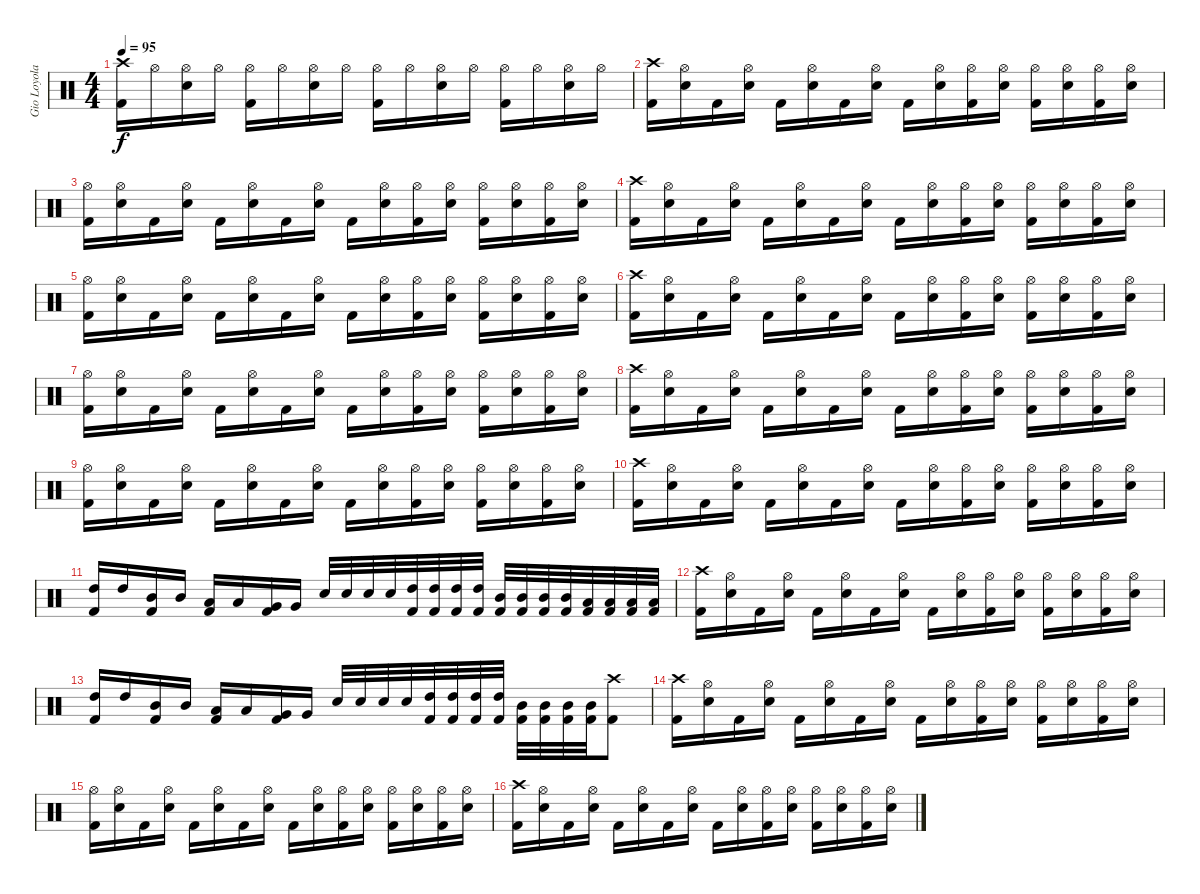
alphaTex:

\track ("Gio Loyola" "Gio Loyola") {instrument percussion}
\staff {score}
\articulation defaults
\ts (4 4)
\tempo 95
\clef neutral
\ks c
("Crash high (hit)" "Kick (hit) 2").16{dy f} "Hi-Hat (open)".16 ("Hi-Hat (open)" "Snare (hit) 2").16 "Hi-Hat (open)".16 ("Hi-Hat (open)" "Kick (hit) 2").16 "Hi-Hat (open)".16 ("Hi-Hat (open)" "Snare (hit) 2").16 "Hi-Hat (open)".16 ("Hi-Hat (open)" "Kick (hit) 2").16 "Hi-Hat (open)".16 ("Hi-Hat (open)" "Snare (hit) 2").16 "Hi-Hat (open)".16 ("Hi-Hat (open)" "Kick (hit) 2").16 "Hi-Hat (open)".16 ("Hi-Hat (open)" "Snare (hit) 2").16 "Hi-Hat (open)".16 |
("Crash high (hit)" "Kick (hit) 2").16 ("Hi-Hat (open)" "Snare (hit) 2").16 "Kick (hit) 2".16 ("Hi-Hat (open)" "Snare (hit) 2").16 "Kick (hit) 2".16 ("Hi-Hat (open)" "Snare (hit) 2").16 "Kick (hit) 2".16 ("Hi-Hat (open)" "Snare (hit) 2").16 "Kick (hit) 2".16 ("Hi-Hat (open)" "Snare (hit) 2").16 ("Hi-Hat (open)" "Kick (hit) 2").16 ("Hi-Hat (open)" "Snare (hit) 2").16 ("Hi-Hat (open)" "Kick (hit) 2").16 ("Hi-Hat (open)" "Snare (hit) 2").16 ("Hi-Hat (open)" "Kick (hit) 2").16 ("Hi-Hat (open)" "Snare (hit) 2").16 |
("Hi-Hat (open)" "Kick (hit) 2").16 ("Hi-Hat (open)" "Snare (hit) 2").16 "Kick (hit) 2".16 ("Hi-Hat (open)" "Snare (hit) 2").16 "Kick (hit) 2".16 ("Hi-Hat (open)" "Snare (hit) 2").16 "Kick (hit) 2".16 ("Hi-Hat (open)" "Snare (hit) 2").16 "Kick (hit) 2".16 ("Hi-Hat (open)" "Snare (hit) 2").16 ("Hi-Hat (open)" "Kick (hit) 2").16 ("Hi-Hat (open)" "Snare (hit) 2").16 ("Hi-Hat (open)" "Kick (hit) 2").16 ("Hi-Hat (open)" "Snare (hit) 2").16 ("Hi-Hat (open)" "Kick (hit) 2").16 ("Hi-Hat (open)" "Snare (hit) 2").16 |
("Crash high (hit)" "Kick (hit) 2").16 ("Hi-Hat (open)" "Snare (hit) 2").16 "Kick (hit) 2".16 ("Hi-Hat (open)" "Snare (hit) 2").16 "Kick (hit) 2".16 ("Hi-Hat (open)" "Snare (hit) 2").16 "Kick (hit) 2".16 ("Hi-Hat (open)" "Snare (hit) 2").16 "Kick (hit) 2".16 ("Hi-Hat (open)" "Snare (hit) 2").16 ("Hi-Hat (open)" "Kick (hit) 2").16 ("Hi-Hat (open)" "Snare (hit) 2").16 ("Hi-Hat (open)" "Kick (hit) 2").16 ("Hi-Hat (open)" "Snare (hit) 2").16 ("Hi-Hat (open)" "Kick (hit) 2").16 ("Hi-Hat (open)" "Snare (hit) 2").16 |
("Hi-Hat (open)" "Kick (hit) 2").16 ("Hi-Hat (open)" "Snare (hit) 2").16 "Kick (hit) 2".16 ("Hi-Hat (open)" "Snare (hit) 2").16 "Kick (hit) 2".16 ("Hi-Hat (open)" "Snare (hit) 2").16 "Kick (hit) 2".16 ("Hi-Hat (open)" "Snare (hit) 2").16 "Kick (hit) 2".16 ("Hi-Hat (open)" "Snare (hit) 2").16 ("Hi-Hat (open)" "Kick (hit) 2").16 ("Hi-Hat (open)" "Snare (hit) 2").16 ("Hi-Hat (open)" "Kick (hit) 2").16 ("Hi-Hat (open)" "Snare (hit) 2").16 ("Hi-Hat (open)" "Kick (hit) 2").16 ("Hi-Hat (open)" "Snare (hit) 2").16 |
("Crash high (hit)" "Kick (hit) 2").16 ("Hi-Hat (open)" "Snare (hit) 2").16 "Kick (hit) 2".16 ("Hi-Hat (open)" "Snare (hit) 2").16 "Kick (hit) 2".16 ("Hi-Hat (open)" "Snare (hit) 2").16 "Kick (hit) 2".16 ("Hi-Hat (open)" "Snare (hit) 2").16 "Kick (hit) 2".16 ("Hi-Hat (open)" "Snare (hit) 2").16 ("Hi-Hat (open)" "Kick (hit) 2").16 ("Hi-Hat (open)" "Snare (hit) 2").16 ("Hi-Hat (open)" "Kick (hit) 2").16 ("Hi-Hat (open)" "Snare (hit) 2").16 ("Hi-Hat (open)" "Kick (hit) 2").16 ("Hi-Hat (open)" "Snare (hit) 2").16 |
("Hi-Hat (open)" "Kick (hit) 2").16 ("Hi-Hat (open)" "Snare (hit) 2").16 "Kick (hit) 2".16 ("Hi-Hat (open)" "Snare (hit) 2").16 "Kick (hit) 2".16 ("Hi-Hat (open)" "Snare (hit) 2").16 "Kick (hit) 2".16 ("Hi-Hat (open)" "Snare (hit) 2").16 "Kick (hit) 2".16 ("Hi-Hat (open)" "Snare (hit) 2").16 ("Hi-Hat (open)" "Kick (hit) 2").16 ("Hi-Hat (open)" "Snare (hit) 2").16 ("Hi-Hat (open)" "Kick (hit) 2").16 ("Hi-Hat (open)" "Snare (hit) 2").16 ("Hi-Hat (open)" "Kick (hit) 2").16 ("Hi-Hat (open)" "Snare (hit) 2").16 |
("Crash high (hit)" "Kick (hit) 2").16 ("Hi-Hat (open)" "Snare (hit) 2").16 "Kick (hit) 2".16 ("Hi-Hat (open)" "Snare (hit) 2").16 "Kick (hit) 2".16 ("Hi-Hat (open)" "Snare (hit) 2").16 "Kick (hit) 2".16 ("Hi-Hat (open)" "Snare (hit) 2").16 "Kick (hit) 2".16 ("Hi-Hat (open)" "Snare (hit) 2").16 ("Hi-Hat (open)" "Kick (hit) 2").16 ("Hi-Hat (open)" "Snare (hit) 2").16 ("Hi-Hat (open)" "Kick (hit) 2").16 ("Hi-Hat (open)" "Snare (hit) 2").16 ("Hi-Hat (open)" "Kick (hit) 2").16 ("Hi-Hat (open)" "Snare (hit) 2").16 |
("Hi-Hat (open)" "Kick (hit) 2").16 ("Hi-Hat (open)" "Snare (hit) 2").16 "Kick (hit) 2".16 ("Hi-Hat (open)" "Snare (hit) 2").16 "Kick (hit) 2".16 ("Hi-Hat (open)" "Snare (hit) 2").16 "Kick (hit) 2".16 ("Hi-Hat (open)" "Snare (hit) 2").16 "Kick (hit) 2".16 ("Hi-Hat (open)" "Snare (hit) 2").16 ("Hi-Hat (open)" "Kick (hit) 2").16 ("Hi-Hat (open)" "Snare (hit) 2").16 ("Hi-Hat (open)" "Kick (hit) 2").16 ("Hi-Hat (open)" "Snare (hit) 2").16 ("Hi-Hat (open)" "Kick (hit) 2").16 ("Hi-Hat (open)" "Snare (hit) 2").16 |
("Crash high (hit)" "Kick (hit) 2").16 ("Hi-Hat (open)" "Snare (hit) 2").16 "Kick (hit) 2".16 ("Hi-Hat (open)" "Snare (hit) 2").16 "Kick (hit) 2".16 ("Hi-Hat (open)" "Snare (hit) 2").16 "Kick (hit) 2".16 ("Hi-Hat (open)" "Snare (hit) 2").16 "Kick (hit) 2".16 ("Hi-Hat (open)" "Snare (hit) 2").16 ("Hi-Hat (open)" "Kick (hit) 2").16 ("Hi-Hat (open)" "Snare (hit) 2").16 ("Hi-Hat (open)" "Kick (hit) 2").16 ("Hi-Hat (open)" "Snare (hit) 2").16 ("Hi-Hat (open)" "Kick (hit) 2").16 ("Hi-Hat (open)" "Snare (hit) 2").16 |
("High Tom (hit)" "Kick (hit) 2").16 "High Tom (hit)".16 ("Mid Tom (hit)" "Kick (hit) 2").16 "Mid Tom (hit)".16 ("Low Tom (hit)" "Kick (hit) 2").16 "Low Tom (hit)".16 ("Very Low Tom (hit)" "Kick (hit) 2").16 "Very Low Tom (hit)".16 "Snare (hit) 2".32 "Snare (hit) 2".32 "Snare (hit) 2".32 "Snare (hit) 2".32 ("High Tom (hit)" "Kick (hit) 2").32 ("High Tom (hit)" "Kick (hit) 2").32 ("High Tom (hit)" "Kick (hit) 2").32 ("High Tom (hit)" "Kick (hit) 2").32 ("Mid Tom (hit)" "Kick (hit) 2").32 ("Mid Tom (hit)" "Kick (hit) 2").32 ("Mid Tom (hit)" "Kick (hit) 2").32 ("Mid Tom (hit)" "Kick (hit) 2").32 ("Low Tom (hit)" "Kick (hit) 2").32 ("Low Tom (hit)" "Kick (hit) 2").32 ("Low Tom (hit)" "Kick (hit) 2").32 ("Low Tom (hit)" "Kick (hit) 2").32 |
("Crash high (hit)" "Kick (hit) 2").16 ("Hi-Hat (open)" "Snare (hit) 2").16 "Kick (hit) 2".16 ("Hi-Hat (open)" "Snare (hit) 2").16 "Kick (hit) 2".16 ("Hi-Hat (open)" "Snare (hit) 2").16 "Kick (hit) 2".16 ("Hi-Hat (open)" "Snare (hit) 2").16 "Kick (hit) 2".16 ("Hi-Hat (open)" "Snare (hit) 2").16 ("Hi-Hat (open)" "Kick (hit) 2").16 ("Hi-Hat (open)" "Snare (hit) 2").16 ("Hi-Hat (open)" "Kick (hit) 2").16 ("Hi-Hat (open)" "Snare (hit) 2").16 ("Hi-Hat (open)" "Kick (hit) 2").16 ("Hi-Hat (open)" "Snare (hit) 2").16 |
("High Tom (hit)" "Kick (hit) 2").16 "High Tom (hit)".16 ("Mid Tom (hit)" "Kick (hit) 2").16 "Mid Tom (hit)".16 ("Low Tom (hit)" "Kick (hit) 2").16 "Low Tom (hit)".16 ("Very Low Tom (hit)" "Kick (hit) 2").16 "Very Low Tom (hit)".16 "Snare (hit) 2".32 "Snare (hit) 2".32 "Snare (hit) 2".32 "Snare (hit) 2".32 ("High Tom (hit)" "Kick (hit) 2").32 ("High Tom (hit)" "Kick (hit) 2").32 ("High Tom (hit)" "Kick (hit) 2").32 ("High Tom (hit)" "Kick (hit) 2").32 ("Mid Tom (hit)" "Kick (hit) 2").32 ("Mid Tom (hit)" "Kick (hit) 2").32 ("Mid Tom (hit)" "Kick (hit) 2").32 ("Mid Tom (hit)" "Kick (hit) 2").32 ("Crash high (hit)" "Kick (hit) 2").8 |
("Crash high (hit)" "Kick (hit) 2").16 ("Hi-Hat (open)" "Snare (hit) 2").16 "Kick (hit) 2".16 ("Hi-Hat (open)" "Snare (hit) 2").16 "Kick (hit) 2".16 ("Hi-Hat (open)" "Snare (hit) 2").16 "Kick (hit) 2".16 ("Hi-Hat (open)" "Snare (hit) 2").16 "Kick (hit) 2".16 ("Hi-Hat (open)" "Snare (hit) 2").16 ("Hi-Hat (open)" "Kick (hit) 2").16 ("Hi-Hat (open)" "Snare (hit) 2").16 ("Hi-Hat (open)" "Kick (hit) 2").16 ("Hi-Hat (open)" "Snare (hit) 2").16 ("Hi-Hat (open)" "Kick (hit) 2").16 ("Hi-Hat (open)" "Snare (hit) 2").16 |
("Hi-Hat (open)" "Kick (hit) 2").16 ("Hi-Hat (open)" "Snare (hit) 2").16 "Kick (hit) 2".16 ("Hi-Hat (open)" "Snare (hit) 2").16 "Kick (hit) 2".16 ("Hi-Hat (open)" "Snare (hit) 2").16 "Kick (hit) 2".16 ("Hi-Hat (open)" "Snare (hit) 2").16 "Kick (hit) 2".16 ("Hi-Hat (open)" "Snare (hit) 2").16 ("Hi-Hat (open)" "Kick (hit) 2").16 ("Hi-Hat (open)" "Snare (hit) 2").16 ("Hi-Hat (open)" "Kick (hit) 2").16 ("Hi-Hat (open)" "Snare (hit) 2").16 ("Hi-Hat (open)" "Kick (hit) 2").16 ("Hi-Hat (open)" "Snare (hit) 2").16 |
("Crash high (hit)" "Kick (hit) 2").16 ("Hi-Hat (open)" "Snare (hit) 2").16 "Kick (hit) 2".16 ("Hi-Hat (open)" "Snare (hit) 2").16 "Kick (hit) 2".16 ("Hi-Hat (open)" "Snare (hit) 2").16 "Kick (hit) 2".16 ("Hi-Hat (open)" "Snare (hit) 2").16 "Kick (hit) 2".16 ("Hi-Hat (open)" "Snare (hit) 2").16 ("Hi-Hat (open)" "Kick (hit) 2").16 ("Hi-Hat (open)" "Snare (hit) 2").16 ("Hi-Hat (open)" "Kick (hit) 2").16 ("Hi-Hat (open)" "Snare (hit) 2").16 ("Hi-Hat (open)" "Kick (hit) 2").16 ("Hi-Hat (open)" "Snare (hit) 2").16
